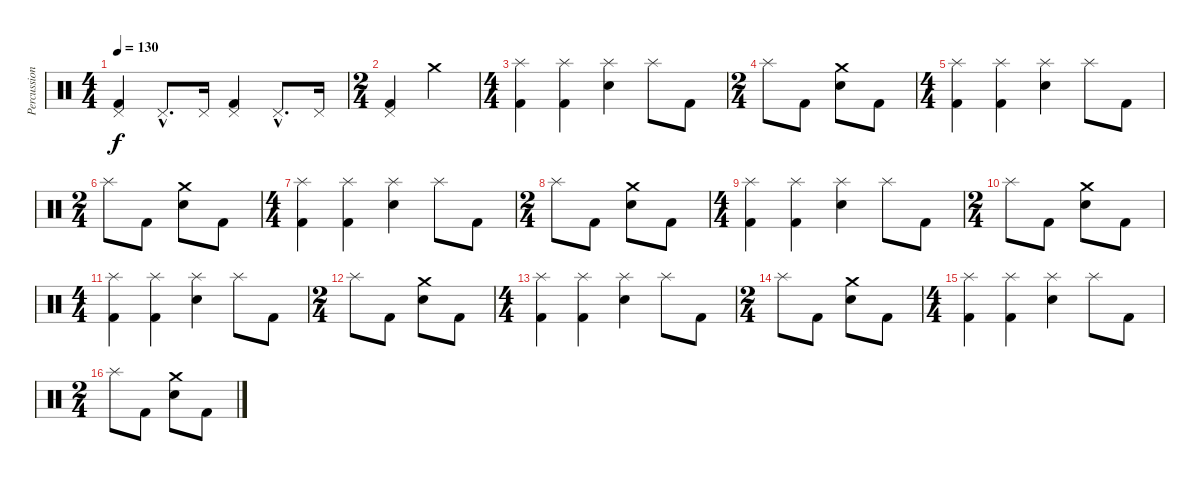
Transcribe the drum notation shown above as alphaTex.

\track ("Percussions" "Percussion") {instrument percussion}
\staff {score}
\articulation defaults
\ts (4 4)
\tempo 130
\clef neutral
\ks c
("Pedal Hi-Hat (hit)" "Kick (hit) 2").4{dy f} "Pedal Hi-Hat (hit)"{hac}.8{d} "Pedal Hi-Hat (hit)".16 ("Pedal Hi-Hat (hit)" "Kick (hit) 2").4 "Pedal Hi-Hat (hit)"{hac}.8{d} "Pedal Hi-Hat (hit)".16 |
\ts (2 4)
("Pedal Hi-Hat (hit)" "Kick (hit) 2").4 "Crash medium (hit)".4 |
\ts (4 4)
("Splash (hit)" "Kick (hit) 2").4 ("Splash (hit)" "Kick (hit) 2").4 ("Splash (hit)" "Electric Snare (hit)").4 "Splash (hit)".8 "Kick (hit) 2".8 |
\ts (2 4)
"Splash (hit)".8 "Kick (hit) 2".8 ("Crash medium (hit)" "Electric Snare (hit)").8 "Kick (hit) 2".8 |
\ts (4 4)
("Splash (hit)" "Kick (hit) 2").4 ("Splash (hit)" "Kick (hit) 2").4 ("Splash (hit)" "Electric Snare (hit)").4 "Splash (hit)".8 "Kick (hit) 2".8 |
\ts (2 4)
"Splash (hit)".8 "Kick (hit) 2".8 ("Crash medium (hit)" "Electric Snare (hit)").8 "Kick (hit) 2".8 |
\ts (4 4)
("Splash (hit)" "Kick (hit) 2").4 ("Splash (hit)" "Kick (hit) 2").4 ("Splash (hit)" "Electric Snare (hit)").4 "Splash (hit)".8 "Kick (hit) 2".8 |
\ts (2 4)
"Splash (hit)".8 "Kick (hit) 2".8 ("Crash medium (hit)" "Electric Snare (hit)").8 "Kick (hit) 2".8 |
\ts (4 4)
("Splash (hit)" "Kick (hit) 2").4 ("Splash (hit)" "Kick (hit) 2").4 ("Splash (hit)" "Electric Snare (hit)").4 "Splash (hit)".8 "Kick (hit) 2".8 |
\ts (2 4)
"Splash (hit)".8 "Kick (hit) 2".8 ("Crash medium (hit)" "Electric Snare (hit)").8 "Kick (hit) 2".8 |
\ts (4 4)
("Splash (hit)" "Kick (hit) 2").4 ("Splash (hit)" "Kick (hit) 2").4 ("Splash (hit)" "Electric Snare (hit)").4 "Splash (hit)".8 "Kick (hit) 2".8 |
\ts (2 4)
"Splash (hit)".8 "Kick (hit) 2".8 ("Crash medium (hit)" "Electric Snare (hit)").8 "Kick (hit) 2".8 |
\ts (4 4)
("Splash (hit)" "Kick (hit) 2").4 ("Splash (hit)" "Kick (hit) 2").4 ("Splash (hit)" "Electric Snare (hit)").4 "Splash (hit)".8 "Kick (hit) 2".8 |
\ts (2 4)
"Splash (hit)".8 "Kick (hit) 2".8 ("Crash medium (hit)" "Electric Snare (hit)").8 "Kick (hit) 2".8 |
\ts (4 4)
("Splash (hit)" "Kick (hit) 2").4 ("Splash (hit)" "Kick (hit) 2").4 ("Splash (hit)" "Electric Snare (hit)").4 "Splash (hit)".8 "Kick (hit) 2".8 |
\ts (2 4)
"Splash (hit)".8 "Kick (hit) 2".8 ("Crash medium (hit)" "Electric Snare (hit)").8 "Kick (hit) 2".8
